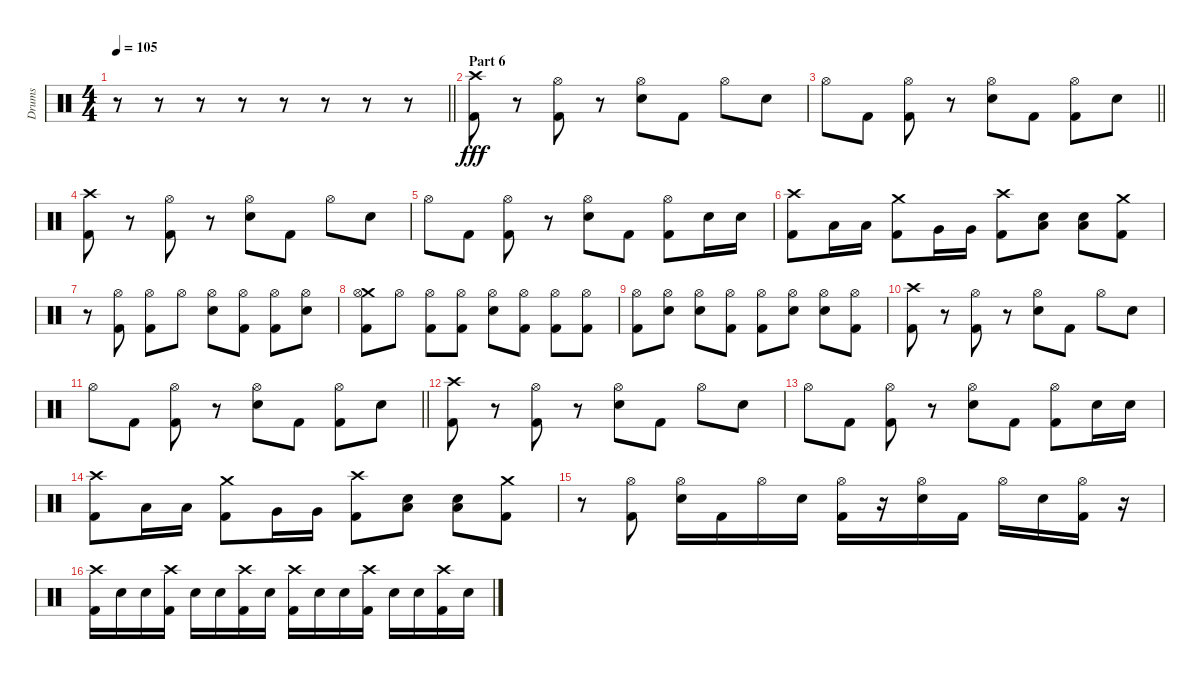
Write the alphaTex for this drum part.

\track ("Drums" "Drums") {instrument percussion}
\staff {score}
\articulation defaults
\ts (4 4)
\tempo 105
\clef neutral
\barLineRight lightlight
\ks c
r.8{dy fff} r.8 r.8 r.8 r.8 r.8 r.8 r.8 |
\section ("" "Part 6")
("Crash high (hit)" "Kick (hit) 2").8 r.8 ("Hi-Hat (open)" "Kick (hit) 2").8 r.8 ("Hi-Hat (open)" "Electric Snare (hit)").8 "Kick (hit) 2".8 "Hi-Hat (open)".8 "Electric Snare (hit)".8 |
\barLineRight lightlight "Hi-Hat (open)".8 "Kick (hit) 2".8
("Hi-Hat (open)" "Kick (hit) 2").8 r.8 ("Hi-Hat (open)" "Electric Snare (hit)").8 "Kick (hit) 2".8 ("Hi-Hat (open)" "Kick (hit) 2").8 "Electric Snare (hit)".8 |
("Crash high (hit)" "Kick (hit) 2").8 r.8 ("Hi-Hat (open)" "Kick (hit) 2").8 r.8 ("Hi-Hat (open)" "Electric Snare (hit)").8 "Kick (hit) 2".8 "Hi-Hat (open)".8 "Electric Snare (hit)".8 |
"Hi-Hat (open)".8 "Kick (hit) 2".8 ("Hi-Hat (open)" "Kick (hit) 2").8 r.8 ("Hi-Hat (open)" "Electric Snare (hit)").8 "Kick (hit) 2".8 ("Hi-Hat (open)" "Kick (hit) 2").8 "Electric Snare (hit)".16 "Electric Snare (hit)".16 |
("Crash high (hit)" "Kick (hit) 2").8 "Low Tom (hit)".16 "Low Tom (hit)".16 ("Crash medium (hit)" "Kick (hit) 2").8 "Very Low Tom (hit)".16 "Very Low Tom (hit)".16 ("Crash high (hit)" "Kick (hit) 2").8 ("Electric Snare (hit)" "Low Floor Tom (hit)").8 ("Electric Snare (hit)" "Low Floor Tom (hit)").8 ("Crash medium (hit)" "Kick (hit) 2").8 |
r.8 ("Hi-Hat (open)" "Kick (hit) 2").8 ("Hi-Hat (open)" "Kick (hit) 2").8 "Hi-Hat (open)".8 ("Hi-Hat (open)" "Electric Snare (hit)").8 ("Hi-Hat (open)" "Kick (hit) 2").8 ("Hi-Hat (open)" "Kick (hit) 2").8 ("Hi-Hat (open)" "Electric Snare (hit)").8 |
("Crash medium (hit)" "Hi-Hat (open)" "Kick (hit) 2").8 "Hi-Hat (open)".8 ("Hi-Hat (open)" "Kick (hit) 2").8 ("Hi-Hat (open)" "Kick (hit) 2").8 ("Hi-Hat (open)" "Electric Snare (hit)").8 ("Hi-Hat (open)" "Kick (hit) 2").8 ("Hi-Hat (open)" "Kick (hit) 2").8 ("Hi-Hat (open)" "Kick (hit) 2").8 |
("Hi-Hat (open)" "Kick (hit) 2").8 ("Hi-Hat (open)" "Electric Snare (hit)").8 ("Hi-Hat (open)" "Electric Snare (hit)").8 ("Hi-Hat (open)" "Kick (hit) 2").8 ("Hi-Hat (open)" "Kick (hit) 2").8 ("Hi-Hat (open)" "Electric Snare (hit)").8 ("Hi-Hat (open)" "Electric Snare (hit)").8 ("Hi-Hat (open)" "Kick (hit) 2").8 |
("Crash high (hit)" "Kick (hit) 2").8 r.8 ("Hi-Hat (open)" "Kick (hit) 2").8 r.8 ("Hi-Hat (open)" "Electric Snare (hit)").8 "Kick (hit) 2".8 "Hi-Hat (open)".8 "Electric Snare (hit)".8 |
\barLineRight lightlight "Hi-Hat (open)".8 "Kick (hit) 2".8
("Hi-Hat (open)" "Kick (hit) 2").8 r.8 ("Hi-Hat (open)" "Electric Snare (hit)").8 "Kick (hit) 2".8 ("Hi-Hat (open)" "Kick (hit) 2").8 "Electric Snare (hit)".8 |
("Crash high (hit)" "Kick (hit) 2").8 r.8 ("Hi-Hat (open)" "Kick (hit) 2").8 r.8 ("Hi-Hat (open)" "Electric Snare (hit)").8 "Kick (hit) 2".8 "Hi-Hat (open)".8 "Electric Snare (hit)".8 |
"Hi-Hat (open)".8 "Kick (hit) 2".8 ("Hi-Hat (open)" "Kick (hit) 2").8 r.8 ("Hi-Hat (open)" "Electric Snare (hit)").8 "Kick (hit) 2".8 ("Hi-Hat (open)" "Kick (hit) 2").8 "Electric Snare (hit)".16 "Electric Snare (hit)".16 |
("Crash high (hit)" "Kick (hit) 2").8 "Low Tom (hit)".16 "Low Tom (hit)".16 ("Crash medium (hit)" "Kick (hit) 2").8 "Very Low Tom (hit)".16 "Very Low Tom (hit)".16 ("Crash high (hit)" "Kick (hit) 2").8 ("Electric Snare (hit)" "Low Floor Tom (hit)").8 ("Electric Snare (hit)" "Low Floor Tom (hit)").8 ("Crash medium (hit)" "Kick (hit) 2").8 |
r.8 ("Hi-Hat (open)" "Kick (hit) 2").8 ("Hi-Hat (open)" "Electric Snare (hit)").16 "Kick (hit) 2".16 "Hi-Hat (open)".16 "Electric Snare (hit)".16 ("Hi-Hat (open)" "Kick (hit) 2").16 r.16 ("Hi-Hat (open)" "Electric Snare (hit)").16 "Kick (hit) 2".16 "Hi-Hat (open)".16 "Electric Snare (hit)".16 ("Hi-Hat (open)" "Kick (hit) 2").16 r.16 |
("Crash high (hit)" "Kick (hit) 2").16 "Electric Snare (hit)".16 "Electric Snare (hit)".16 ("Crash high (hit)" "Kick (hit) 2").16 "Electric Snare (hit)".16 "Electric Snare (hit)".16 ("Crash high (hit)" "Kick (hit) 2").16 "Electric Snare (hit)".16 ("Crash high (hit)" "Kick (hit) 2").16 "Electric Snare (hit)".16 "Electric Snare (hit)".16 ("Crash high (hit)" "Kick (hit) 2").16 "Electric Snare (hit)".16 "Electric Snare (hit)".16 ("Crash high (hit)" "Kick (hit) 2").16 "Electric Snare (hit)".16
